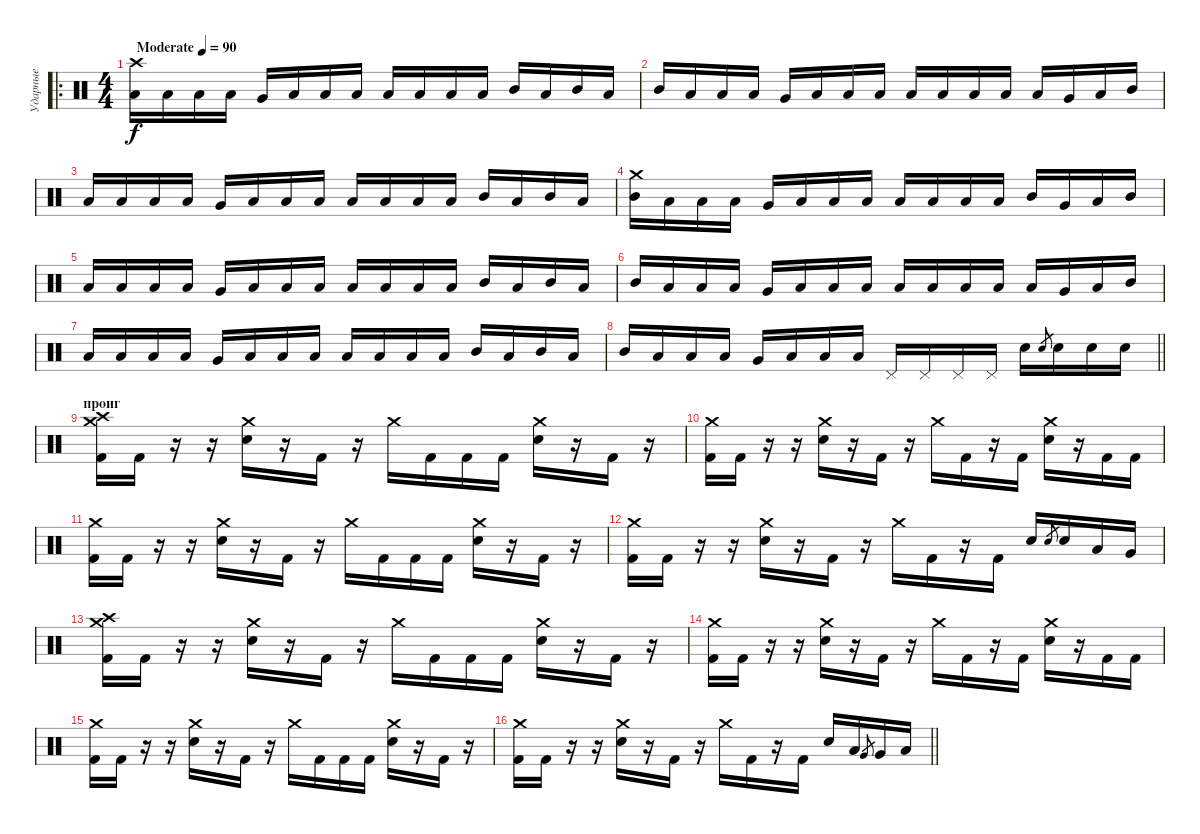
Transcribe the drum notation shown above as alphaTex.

\track ("Ударные" "Ударные") {instrument percussion}
\staff {score}
\articulation defaults
\ro
\ts (4 4)
\tempo (90 "Moderate")
\clef neutral
\ks c
("Crash high (hit)" "Low Floor Tom (hit)").16{dy f} "Low Floor Tom (hit)".16 "Low Floor Tom (hit)".16 "Low Floor Tom (hit)".16 "Very Low Tom (hit)".16 "Low Floor Tom (hit)".16 "Low Floor Tom (hit)".16 "Low Floor Tom (hit)".16 "Low Tom (hit)".16 "Low Floor Tom (hit)".16 "Low Floor Tom (hit)".16 "Low Floor Tom (hit)".16 "Mid Tom (hit)".16 "Low Floor Tom (hit)".16 "Mid Tom (hit)".16 "Low Floor Tom (hit)".16 |
"Mid Tom (hit)".16 "Low Floor Tom (hit)".16 "Low Floor Tom (hit)".16 "Low Floor Tom (hit)".16 "Very Low Tom (hit)".16 "Low Floor Tom (hit)".16 "Low Floor Tom (hit)".16 "Low Floor Tom (hit)".16 "Low Tom (hit)".16 "Low Floor Tom (hit)".16 "Low Floor Tom (hit)".16 "Low Floor Tom (hit)".16 "Low Floor Tom (hit)".16 "Very Low Tom (hit)".16 "Low Tom (hit)".16 "Mid Tom (hit)".16 |
"Low Floor Tom (hit)".16 "Low Floor Tom (hit)".16 "Low Floor Tom (hit)".16 "Low Floor Tom (hit)".16 "Very Low Tom (hit)".16 "Low Floor Tom (hit)".16 "Low Floor Tom (hit)".16 "Low Floor Tom (hit)".16 "Low Tom (hit)".16 "Low Floor Tom (hit)".16 "Low Floor Tom (hit)".16 "Low Floor Tom (hit)".16 "Mid Tom (hit)".16 "Low Floor Tom (hit)".16 "Mid Tom (hit)".16 "Low Floor Tom (hit)".16 |
("Crash medium (hit)" "Mid Tom (hit)").16 "Low Floor Tom (hit)".16 "Low Floor Tom (hit)".16 "Low Floor Tom (hit)".16 "Very Low Tom (hit)".16 "Low Floor Tom (hit)".16 "Low Floor Tom (hit)".16 "Low Floor Tom (hit)".16 "Low Tom (hit)".16 "Low Floor Tom (hit)".16 "Low Floor Tom (hit)".16 "Low Floor Tom (hit)".16 "Mid Tom (hit)".16 "Very Low Tom (hit)".16 "Low Tom (hit)".16 "Mid Tom (hit)".16 |
"Low Floor Tom (hit)".16 "Low Floor Tom (hit)".16 "Low Floor Tom (hit)".16 "Low Floor Tom (hit)".16 "Very Low Tom (hit)".16 "Low Floor Tom (hit)".16 "Low Floor Tom (hit)".16 "Low Floor Tom (hit)".16 "Low Tom (hit)".16 "Low Floor Tom (hit)".16 "Low Floor Tom (hit)".16 "Low Floor Tom (hit)".16 "Mid Tom (hit)".16 "Low Floor Tom (hit)".16 "Mid Tom (hit)".16 "Low Floor Tom (hit)".16 |
"Mid Tom (hit)".16 "Low Floor Tom (hit)".16 "Low Floor Tom (hit)".16 "Low Floor Tom (hit)".16 "Very Low Tom (hit)".16 "Low Floor Tom (hit)".16 "Low Floor Tom (hit)".16 "Low Floor Tom (hit)".16 "Low Tom (hit)".16 "Low Floor Tom (hit)".16 "Low Floor Tom (hit)".16 "Low Floor Tom (hit)".16 "Low Floor Tom (hit)".16 "Very Low Tom (hit)".16 "Low Tom (hit)".16 "Mid Tom (hit)".16 |
"Low Floor Tom (hit)".16 "Low Floor Tom (hit)".16 "Low Floor Tom (hit)".16 "Low Floor Tom (hit)".16 "Very Low Tom (hit)".16 "Low Floor Tom (hit)".16 "Low Floor Tom (hit)".16 "Low Floor Tom (hit)".16 "Low Tom (hit)".16 "Low Floor Tom (hit)".16 "Low Floor Tom (hit)".16 "Low Floor Tom (hit)".16 "Mid Tom (hit)".16 "Low Floor Tom (hit)".16 "Mid Tom (hit)".16 "Low Floor Tom (hit)".16 |
\barLineRight lightlight "Mid Tom (hit)".16 "Low Floor Tom (hit)".16 "Low Floor Tom (hit)".16 "Low Floor Tom (hit)".16 "Very Low Tom (hit)".16 "Low Floor Tom (hit)".16 "Low Floor Tom (hit)".16 "Low Floor Tom (hit)".16 "Pedal Hi-Hat (hit)".16 "Pedal Hi-Hat (hit)".16 "Pedal Hi-Hat (hit)".16 "Pedal Hi-Hat (hit)".16 "Snare (hit) 2".16 "Snare (hit) 2".8{gr} "Snare (hit) 2".16 "Snare (hit) 2".16 "Snare (hit) 2".16
|
\section ("" "проиг")
("Crash medium (hit)" "Crash high (hit)" "Kick (hit) 2").16 "Kick (hit) 2".16 r.16 r.16 ("Crash medium (hit)" "Snare (hit) 2").16 r.16 "Kick (hit) 2".16 r.16 "Crash medium (hit)".16 "Kick (hit) 2".16 "Kick (hit) 2".16 "Kick (hit) 2".16 ("Crash medium (hit)" "Snare (hit) 2").16 r.16 "Kick (hit) 2".16 r.16 |
("Crash medium (hit)" "Kick (hit) 2").16 "Kick (hit) 2".16 r.16 r.16 ("Crash medium (hit)" "Snare (hit) 2").16 r.16 "Kick (hit) 2".16 r.16 "Crash medium (hit)".16 "Kick (hit) 2".16 r.16 "Kick (hit) 2".16 ("Crash medium (hit)" "Snare (hit) 2").16 r.16 "Kick (hit) 2".16 "Kick (hit) 2".16 |
("Crash medium (hit)" "Kick (hit) 2").16 "Kick (hit) 2".16 r.16 r.16 ("Crash medium (hit)" "Snare (hit) 2").16 r.16 "Kick (hit) 2".16 r.16 "Crash medium (hit)".16 "Kick (hit) 2".16 "Kick (hit) 2".16 "Kick (hit) 2".16 ("Crash medium (hit)" "Snare (hit) 2").16 r.16 "Kick (hit) 2".16 r.16 |
("Crash medium (hit)" "Kick (hit) 2").16 "Kick (hit) 2".16 r.16 r.16 ("Crash medium (hit)" "Snare (hit) 2").16 r.16 "Kick (hit) 2".16 r.16 "Crash medium (hit)".16 "Kick (hit) 2".16 r.16 "Kick (hit) 2".16 "Snare (hit) 2".16 "Snare (hit) 2".8{gr} "Snare (hit) 2".16 "Low Floor Tom (hit)".16 "Very Low Tom (hit)".16 |
("Crash medium (hit)" "Crash high (hit)" "Kick (hit) 2").16 "Kick (hit) 2".16 r.16 r.16 ("Crash medium (hit)" "Snare (hit) 2").16 r.16 "Kick (hit) 2".16 r.16 "Crash medium (hit)".16 "Kick (hit) 2".16 "Kick (hit) 2".16 "Kick (hit) 2".16 ("Crash medium (hit)" "Snare (hit) 2").16 r.16 "Kick (hit) 2".16 r.16 |
("Crash medium (hit)" "Kick (hit) 2").16 "Kick (hit) 2".16 r.16 r.16 ("Crash medium (hit)" "Snare (hit) 2").16 r.16 "Kick (hit) 2".16 r.16 "Crash medium (hit)".16 "Kick (hit) 2".16 r.16 "Kick (hit) 2".16 ("Crash medium (hit)" "Snare (hit) 2").16 r.16 "Kick (hit) 2".16 "Kick (hit) 2".16 |
("Crash medium (hit)" "Kick (hit) 2").16 "Kick (hit) 2".16 r.16 r.16 ("Crash medium (hit)" "Snare (hit) 2").16 r.16 "Kick (hit) 2".16 r.16 "Crash medium (hit)".16 "Kick (hit) 2".16 "Kick (hit) 2".16 "Kick (hit) 2".16 ("Crash medium (hit)" "Snare (hit) 2").16 r.16 "Kick (hit) 2".16 r.16 |
\barLineRight lightlight
("Crash medium (hit)" "Kick (hit) 2").16 "Kick (hit) 2".16 r.16 r.16 ("Crash medium (hit)" "Snare (hit) 2").16 r.16 "Kick (hit) 2".16 r.16 "Crash medium (hit)".16 "Kick (hit) 2".16 r.16 "Kick (hit) 2".16 "Snare (hit) 2".16 "Low Floor Tom (hit)".16 "Very Low Tom (hit)".8{gr} "Very Low Tom (hit)".16 "Low Tom (hit)".16
